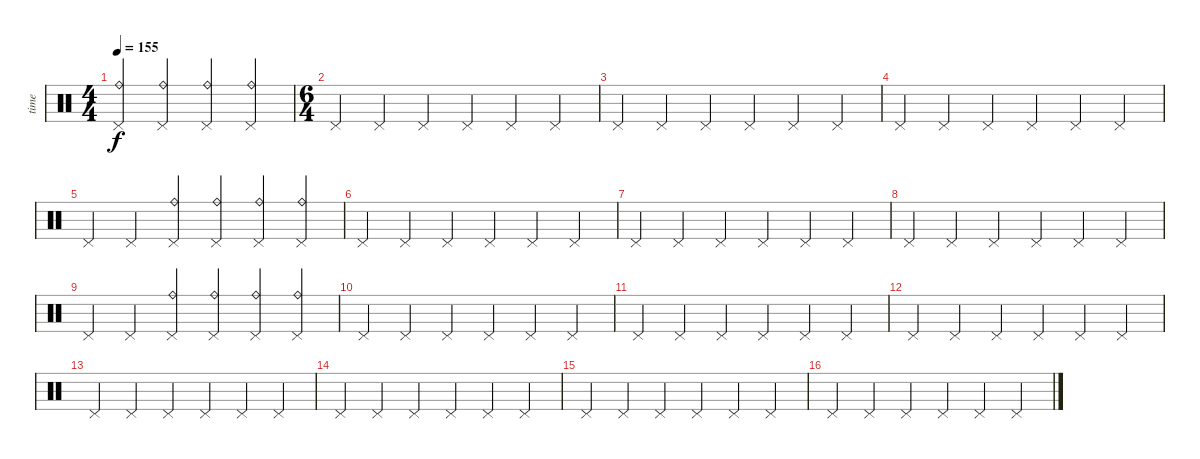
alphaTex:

\track ("time" "time") {instrument percussion}
\staff {score}
\articulation defaults
\ts (4 4)
\tempo 155
\clef neutral
\ks c
("Ride (bell)" "Pedal Hi-Hat (hit)").4{dy f} ("Ride (bell)" "Pedal Hi-Hat (hit)").4 ("Ride (bell)" "Pedal Hi-Hat (hit)").4 ("Ride (bell)" "Pedal Hi-Hat (hit)").4 |
\ts (6 4)
"Pedal Hi-Hat (hit)".4 "Pedal Hi-Hat (hit)".4 "Pedal Hi-Hat (hit)".4 "Pedal Hi-Hat (hit)".4 "Pedal Hi-Hat (hit)".4 "Pedal Hi-Hat (hit)".4 |
"Pedal Hi-Hat (hit)".4 "Pedal Hi-Hat (hit)".4 "Pedal Hi-Hat (hit)".4 "Pedal Hi-Hat (hit)".4 "Pedal Hi-Hat (hit)".4 "Pedal Hi-Hat (hit)".4 |
"Pedal Hi-Hat (hit)".4 "Pedal Hi-Hat (hit)".4 "Pedal Hi-Hat (hit)".4 "Pedal Hi-Hat (hit)".4 "Pedal Hi-Hat (hit)".4 "Pedal Hi-Hat (hit)".4 |
"Pedal Hi-Hat (hit)".4 "Pedal Hi-Hat (hit)".4 ("Pedal Hi-Hat (hit)" "Ride (bell)").4 ("Pedal Hi-Hat (hit)" "Ride (bell)").4 ("Pedal Hi-Hat (hit)" "Ride (bell)").4 ("Pedal Hi-Hat (hit)" "Ride (bell)").4 |
"Pedal Hi-Hat (hit)".4 "Pedal Hi-Hat (hit)".4 "Pedal Hi-Hat (hit)".4 "Pedal Hi-Hat (hit)".4 "Pedal Hi-Hat (hit)".4 "Pedal Hi-Hat (hit)".4 |
"Pedal Hi-Hat (hit)".4 "Pedal Hi-Hat (hit)".4 "Pedal Hi-Hat (hit)".4 "Pedal Hi-Hat (hit)".4 "Pedal Hi-Hat (hit)".4 "Pedal Hi-Hat (hit)".4 |
"Pedal Hi-Hat (hit)".4 "Pedal Hi-Hat (hit)".4 "Pedal Hi-Hat (hit)".4 "Pedal Hi-Hat (hit)".4 "Pedal Hi-Hat (hit)".4 "Pedal Hi-Hat (hit)".4 |
"Pedal Hi-Hat (hit)".4 "Pedal Hi-Hat (hit)".4 ("Pedal Hi-Hat (hit)" "Ride (bell)").4 ("Pedal Hi-Hat (hit)" "Ride (bell)").4 ("Pedal Hi-Hat (hit)" "Ride (bell)").4 ("Pedal Hi-Hat (hit)" "Ride (bell)").4 |
"Pedal Hi-Hat (hit)".4 "Pedal Hi-Hat (hit)".4 "Pedal Hi-Hat (hit)".4 "Pedal Hi-Hat (hit)".4 "Pedal Hi-Hat (hit)".4 "Pedal Hi-Hat (hit)".4 |
"Pedal Hi-Hat (hit)".4 "Pedal Hi-Hat (hit)".4 "Pedal Hi-Hat (hit)".4 "Pedal Hi-Hat (hit)".4 "Pedal Hi-Hat (hit)".4 "Pedal Hi-Hat (hit)".4 |
"Pedal Hi-Hat (hit)".4 "Pedal Hi-Hat (hit)".4 "Pedal Hi-Hat (hit)".4 "Pedal Hi-Hat (hit)".4 "Pedal Hi-Hat (hit)".4 "Pedal Hi-Hat (hit)".4 |
"Pedal Hi-Hat (hit)".4 "Pedal Hi-Hat (hit)".4 "Pedal Hi-Hat (hit)".4 "Pedal Hi-Hat (hit)".4 "Pedal Hi-Hat (hit)".4 "Pedal Hi-Hat (hit)".4 |
"Pedal Hi-Hat (hit)".4 "Pedal Hi-Hat (hit)".4 "Pedal Hi-Hat (hit)".4 "Pedal Hi-Hat (hit)".4 "Pedal Hi-Hat (hit)".4 "Pedal Hi-Hat (hit)".4 |
"Pedal Hi-Hat (hit)".4 "Pedal Hi-Hat (hit)".4 "Pedal Hi-Hat (hit)".4 "Pedal Hi-Hat (hit)".4 "Pedal Hi-Hat (hit)".4 "Pedal Hi-Hat (hit)".4 |
"Pedal Hi-Hat (hit)".4 "Pedal Hi-Hat (hit)".4 "Pedal Hi-Hat (hit)".4 "Pedal Hi-Hat (hit)".4 "Pedal Hi-Hat (hit)".4 "Pedal Hi-Hat (hit)".4
